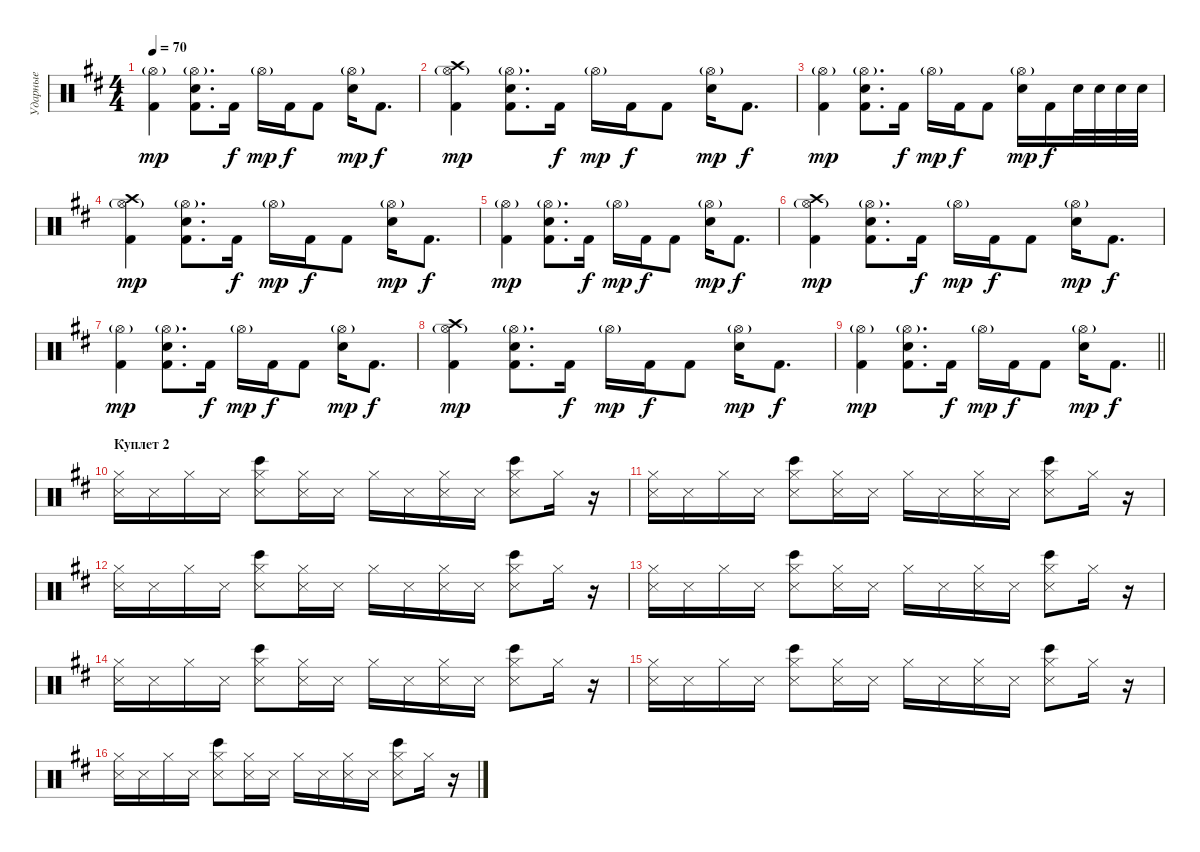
\track ("Ударные" "Ударные") {instrument percussion}
\staff {score}
\articulation defaults
\ts (4 4)
\tempo 70
\clef neutral
\ks bminor
("Hi-Hat (open)"{g} "Kick (hit) 2").4{dy mp} ("Hi-Hat (open)"{g} "Electric Snare (hit)" "Kick (hit) 2").8{d} "Kick (hit) 2".16{dy f} "Hi-Hat (open)"{g}.16{dy mp} "Kick (hit) 2".16{dy f} "Kick (hit) 2".8 ("Hi-Hat (open)"{g} "Electric Snare (hit)").16{dy mp} "Kick (hit) 2".8{d dy f} |
("Crash high (hit)" "Hi-Hat (open)"{g} "Kick (hit) 2").4{dy mp} ("Hi-Hat (open)"{g} "Electric Snare (hit)" "Kick (hit) 2").8{d} "Kick (hit) 2".16{dy f} "Hi-Hat (open)"{g}.16{dy mp} "Kick (hit) 2".16{dy f} "Kick (hit) 2".8 ("Hi-Hat (open)"{g} "Electric Snare (hit)").16{dy mp} "Kick (hit) 2".8{d dy f} |
("Hi-Hat (open)"{g} "Kick (hit) 2").4{dy mp} ("Hi-Hat (open)"{g} "Electric Snare (hit)" "Kick (hit) 2").8{d} "Kick (hit) 2".16{dy f} "Hi-Hat (open)"{g}.16{dy mp} "Kick (hit) 2".16{dy f} "Kick (hit) 2".8 ("Hi-Hat (open)"{g} "Electric Snare (hit)").16{dy mp} "Kick (hit) 2".16{dy f} "Electric Snare (hit)".32 "Electric Snare (hit)".32 "Electric Snare (hit)".32 "Electric Snare (hit)".32 |
("Crash high (hit)" "Hi-Hat (open)"{g} "Kick (hit) 2").4{dy mp} ("Hi-Hat (open)"{g} "Electric Snare (hit)" "Kick (hit) 2").8{d} "Kick (hit) 2".16{dy f} "Hi-Hat (open)"{g}.16{dy mp} "Kick (hit) 2".16{dy f} "Kick (hit) 2".8 ("Hi-Hat (open)"{g} "Electric Snare (hit)").16{dy mp} "Kick (hit) 2".8{d dy f} |
("Hi-Hat (open)"{g} "Kick (hit) 2").4{dy mp} ("Hi-Hat (open)"{g} "Electric Snare (hit)" "Kick (hit) 2").8{d} "Kick (hit) 2".16{dy f} "Hi-Hat (open)"{g}.16{dy mp} "Kick (hit) 2".16{dy f} "Kick (hit) 2".8 ("Hi-Hat (open)"{g} "Electric Snare (hit)").16{dy mp} "Kick (hit) 2".8{d dy f} |
("Crash high (hit)" "Hi-Hat (open)"{g} "Kick (hit) 2").4{dy mp} ("Hi-Hat (open)"{g} "Electric Snare (hit)" "Kick (hit) 2").8{d} "Kick (hit) 2".16{dy f} "Hi-Hat (open)"{g}.16{dy mp} "Kick (hit) 2".16{dy f} "Kick (hit) 2".8 ("Hi-Hat (open)"{g} "Electric Snare (hit)").16{dy mp} "Kick (hit) 2".8{d dy f} |
("Hi-Hat (open)"{g} "Kick (hit) 2").4{dy mp} ("Hi-Hat (open)"{g} "Electric Snare (hit)" "Kick (hit) 2").8{d} "Kick (hit) 2".16{dy f} "Hi-Hat (open)"{g}.16{dy mp} "Kick (hit) 2".16{dy f} "Kick (hit) 2".8 ("Hi-Hat (open)"{g} "Electric Snare (hit)").16{dy mp} "Kick (hit) 2".8{d dy f} |
("Crash high (hit)" "Hi-Hat (open)"{g} "Kick (hit) 2").4{dy mp} ("Hi-Hat (open)"{g} "Electric Snare (hit)" "Kick (hit) 2").8{d} "Kick (hit) 2".16{dy f} "Hi-Hat (open)"{g}.16{dy mp} "Kick (hit) 2".16{dy f} "Kick (hit) 2".8 ("Hi-Hat (open)"{g} "Electric Snare (hit)").16{dy mp} "Kick (hit) 2".8{d dy f} |
\barLineRight lightlight
("Hi-Hat (open)"{g} "Kick (hit) 2").4{dy mp} ("Hi-Hat (open)"{g} "Electric Snare (hit)" "Kick (hit) 2").8{d} "Kick (hit) 2".16{dy f} "Hi-Hat (open)"{g}.16{dy mp} "Kick (hit) 2".16{dy f} "Kick (hit) 2".8 ("Hi-Hat (open)"{g} "Electric Snare (hit)").16{dy mp} "Kick (hit) 2".8{d dy f} |
\section ("" "Куплет 2")
("Hi-Hat (closed)" "Snare (side stick) 3").16 "Snare (side stick) 3".16 "Hi-Hat (closed)".16 "Snare (side stick) 3".16 ("Hi-Hat (closed)" "Bongo High (hit)" "Snare (side stick) 3").8 ("Hi-Hat (closed)" "Snare (side stick) 3").16 "Snare (side stick) 3".16 "Hi-Hat (closed)".16 "Snare (side stick) 3".16 ("Hi-Hat (closed)" "Snare (side stick) 3").16 "Snare (side stick) 3".16 ("Hi-Hat (closed)" "Bongo High (hit)" "Snare (side stick) 3").8 "Hi-Hat (closed)".16 r.16 |
("Hi-Hat (closed)" "Snare (side stick) 3").16 "Snare (side stick) 3".16 "Hi-Hat (closed)".16 "Snare (side stick) 3".16 ("Hi-Hat (closed)" "Bongo High (hit)" "Snare (side stick) 3").8 ("Hi-Hat (closed)" "Snare (side stick) 3").16 "Snare (side stick) 3".16 "Hi-Hat (closed)".16 "Snare (side stick) 3".16 ("Hi-Hat (closed)" "Snare (side stick) 3").16 "Snare (side stick) 3".16 ("Hi-Hat (closed)" "Bongo High (hit)" "Snare (side stick) 3").8 "Hi-Hat (closed)".16 r.16 |
("Hi-Hat (closed)" "Snare (side stick) 3").16 "Snare (side stick) 3".16 "Hi-Hat (closed)".16 "Snare (side stick) 3".16 ("Hi-Hat (closed)" "Bongo High (hit)" "Snare (side stick) 3").8 ("Hi-Hat (closed)" "Snare (side stick) 3").16 "Snare (side stick) 3".16 "Hi-Hat (closed)".16 "Snare (side stick) 3".16 ("Hi-Hat (closed)" "Snare (side stick) 3").16 "Snare (side stick) 3".16 ("Hi-Hat (closed)" "Bongo High (hit)" "Snare (side stick) 3").8 "Hi-Hat (closed)".16 r.16 |
("Hi-Hat (closed)" "Snare (side stick) 3").16 "Snare (side stick) 3".16 "Hi-Hat (closed)".16 "Snare (side stick) 3".16 ("Hi-Hat (closed)" "Bongo High (hit)" "Snare (side stick) 3").8 ("Hi-Hat (closed)" "Snare (side stick) 3").16 "Snare (side stick) 3".16 "Hi-Hat (closed)".16 "Snare (side stick) 3".16 ("Hi-Hat (closed)" "Snare (side stick) 3").16 "Snare (side stick) 3".16 ("Hi-Hat (closed)" "Bongo High (hit)" "Snare (side stick) 3").8 "Hi-Hat (closed)".16 r.16 |
("Hi-Hat (closed)" "Snare (side stick) 3").16 "Snare (side stick) 3".16 "Hi-Hat (closed)".16 "Snare (side stick) 3".16 ("Hi-Hat (closed)" "Bongo High (hit)" "Snare (side stick) 3").8 ("Hi-Hat (closed)" "Snare (side stick) 3").16 "Snare (side stick) 3".16 "Hi-Hat (closed)".16 "Snare (side stick) 3".16 ("Hi-Hat (closed)" "Snare (side stick) 3").16 "Snare (side stick) 3".16 ("Hi-Hat (closed)" "Bongo High (hit)" "Snare (side stick) 3").8 "Hi-Hat (closed)".16 r.16 |
("Hi-Hat (closed)" "Snare (side stick) 3").16 "Snare (side stick) 3".16 "Hi-Hat (closed)".16 "Snare (side stick) 3".16 ("Hi-Hat (closed)" "Bongo High (hit)" "Snare (side stick) 3").8 ("Hi-Hat (closed)" "Snare (side stick) 3").16 "Snare (side stick) 3".16 "Hi-Hat (closed)".16 "Snare (side stick) 3".16 ("Hi-Hat (closed)" "Snare (side stick) 3").16 "Snare (side stick) 3".16 ("Hi-Hat (closed)" "Bongo High (hit)" "Snare (side stick) 3").8 "Hi-Hat (closed)".16 r.16 |
("Hi-Hat (closed)" "Snare (side stick) 3").16 "Snare (side stick) 3".16 "Hi-Hat (closed)".16 "Snare (side stick) 3".16 ("Hi-Hat (closed)" "Bongo High (hit)" "Snare (side stick) 3").8 ("Hi-Hat (closed)" "Snare (side stick) 3").16 "Snare (side stick) 3".16 "Hi-Hat (closed)".16 "Snare (side stick) 3".16 ("Hi-Hat (closed)" "Snare (side stick) 3").16 "Snare (side stick) 3".16 ("Hi-Hat (closed)" "Bongo High (hit)" "Snare (side stick) 3").8 "Hi-Hat (closed)".16 r.16
